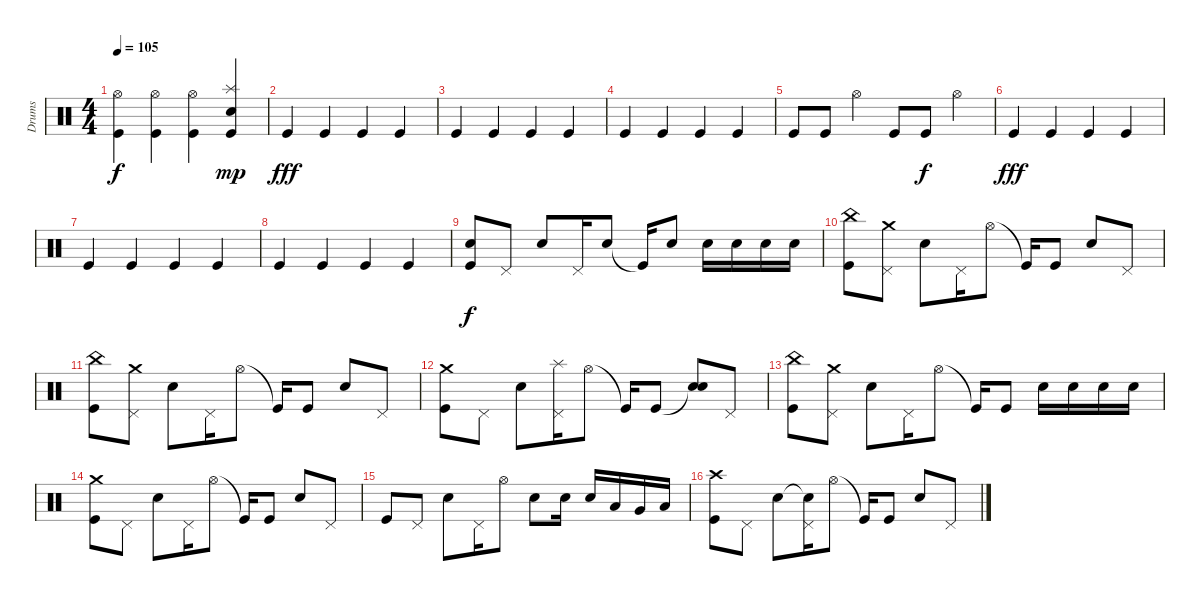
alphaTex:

\track ("Drums" "Drums") {instrument percussion}
\staff {score}
\articulation defaults
\ts (4 4)
\tempo 105
\clef neutral
\ks c
("Hi-Hat (open)" "Kick (hit)").4{dy f} ("Hi-Hat (open)" "Kick (hit)").4 ("Hi-Hat (open)" "Kick (hit)").4 ("Splash (hit)" "Snare (hit) 2" "Kick (hit)").4{dy mp} |
"Kick (hit)".4{dy fff} "Kick (hit)".4 "Kick (hit)".4 "Kick (hit)".4 |
"Kick (hit)".4 "Kick (hit)".4 "Kick (hit)".4 "Kick (hit)".4 |
"Kick (hit)".4 "Kick (hit)".4 "Kick (hit)".4 "Kick (hit)".4 |
"Kick (hit)".8 "Kick (hit)".8 "Hi-Hat (open)".4 "Kick (hit)".8 "Kick (hit)".8{dy f} "Hi-Hat (open)".4 |
"Kick (hit)".4{dy fff} "Kick (hit)".4 "Kick (hit)".4 "Kick (hit)".4 |
"Kick (hit)".4 "Kick (hit)".4 "Kick (hit)".4 "Kick (hit)".4 |
"Kick (hit)".4 "Kick (hit)".4 "Kick (hit)".4 "Kick (hit)".4 |
("Snare (hit) 2" "Kick (hit)").8{dy f} "Pedal Hi-Hat (hit)".8 "Snare (hit) 2".8 "Pedal Hi-Hat (hit)".16 "Snare (hit) 2".8 "Kick (hit)"{t}.16 "Snare (hit) 2".8 "Snare (hit) 2".16 "Snare (hit) 2".16 "Snare (hit) 2".16 "Snare (hit) 2".16 |
("China (hit)" "Kick (hit)").8 ("Crash medium (hit)" "Pedal Hi-Hat (hit)").8 "Snare (hit) 2".8 "Pedal Hi-Hat (hit)".16 "Hi-Hat (open)".8 "Kick (hit)"{t}.16 "Kick (hit)".8 "Snare (hit) 2".8 "Pedal Hi-Hat (hit)".8 |
("China (hit)" "Kick (hit)").8 ("Crash medium (hit)" "Pedal Hi-Hat (hit)").8 "Snare (hit) 2".8 "Pedal Hi-Hat (hit)".16 "Hi-Hat (open)".8 "Kick (hit)"{t}.16 "Kick (hit)".8 "Snare (hit) 2".8 "Pedal Hi-Hat (hit)".8 |
("Crash medium (hit)" "Kick (hit)").8 "Pedal Hi-Hat (hit)".8 "Snare (hit) 2".8 ("Splash (hit)" "Pedal Hi-Hat (hit)").16 "Hi-Hat (open)".8 "Kick (hit)"{t}.16 "Kick (hit)".8 ("Snare (hit)"{t} "Snare (hit) 2").8 "Pedal Hi-Hat (hit)".8 |
("China (hit)" "Kick (hit)").8 ("Crash medium (hit)" "Pedal Hi-Hat (hit)").8 "Snare (hit) 2".8 "Pedal Hi-Hat (hit)".16 "Hi-Hat (open)".8 "Kick (hit)"{t}.16 "Kick (hit)".8 "Snare (hit) 2".16 "Snare (hit) 2".16 "Snare (hit) 2".16 "Snare (hit) 2".16 |
("Crash medium (hit)" "Kick (hit)").8 "Pedal Hi-Hat (hit)".8 "Snare (hit) 2".8 "Pedal Hi-Hat (hit)".16 "Hi-Hat (open)".8 "Kick (hit)"{t}.16 "Kick (hit)".8 "Snare (hit) 2".8 "Pedal Hi-Hat (hit)".8 |
"Kick (hit)".8 "Pedal Hi-Hat (hit)".8 "Snare (hit) 2".8 "Pedal Hi-Hat (hit)".16 "Hi-Hat (open)".8 "Snare (hit) 2".8 "Snare (hit) 2".16 "Snare (hit) 2".16 "Low Tom (hit)".16 "Very Low Tom (hit)".16 "Low Floor Tom (hit)".16 |
("Crash high (hit)" "Kick (hit)").8 "Pedal Hi-Hat (hit)".8 "Snare (hit) 2".8 ("Snare (hit)"{t} "Pedal Hi-Hat (hit)").16 "Hi-Hat (open)".8 "Kick (hit)"{t}.16 "Kick (hit)".8 "Snare (hit) 2".8 "Pedal Hi-Hat (hit)".8
